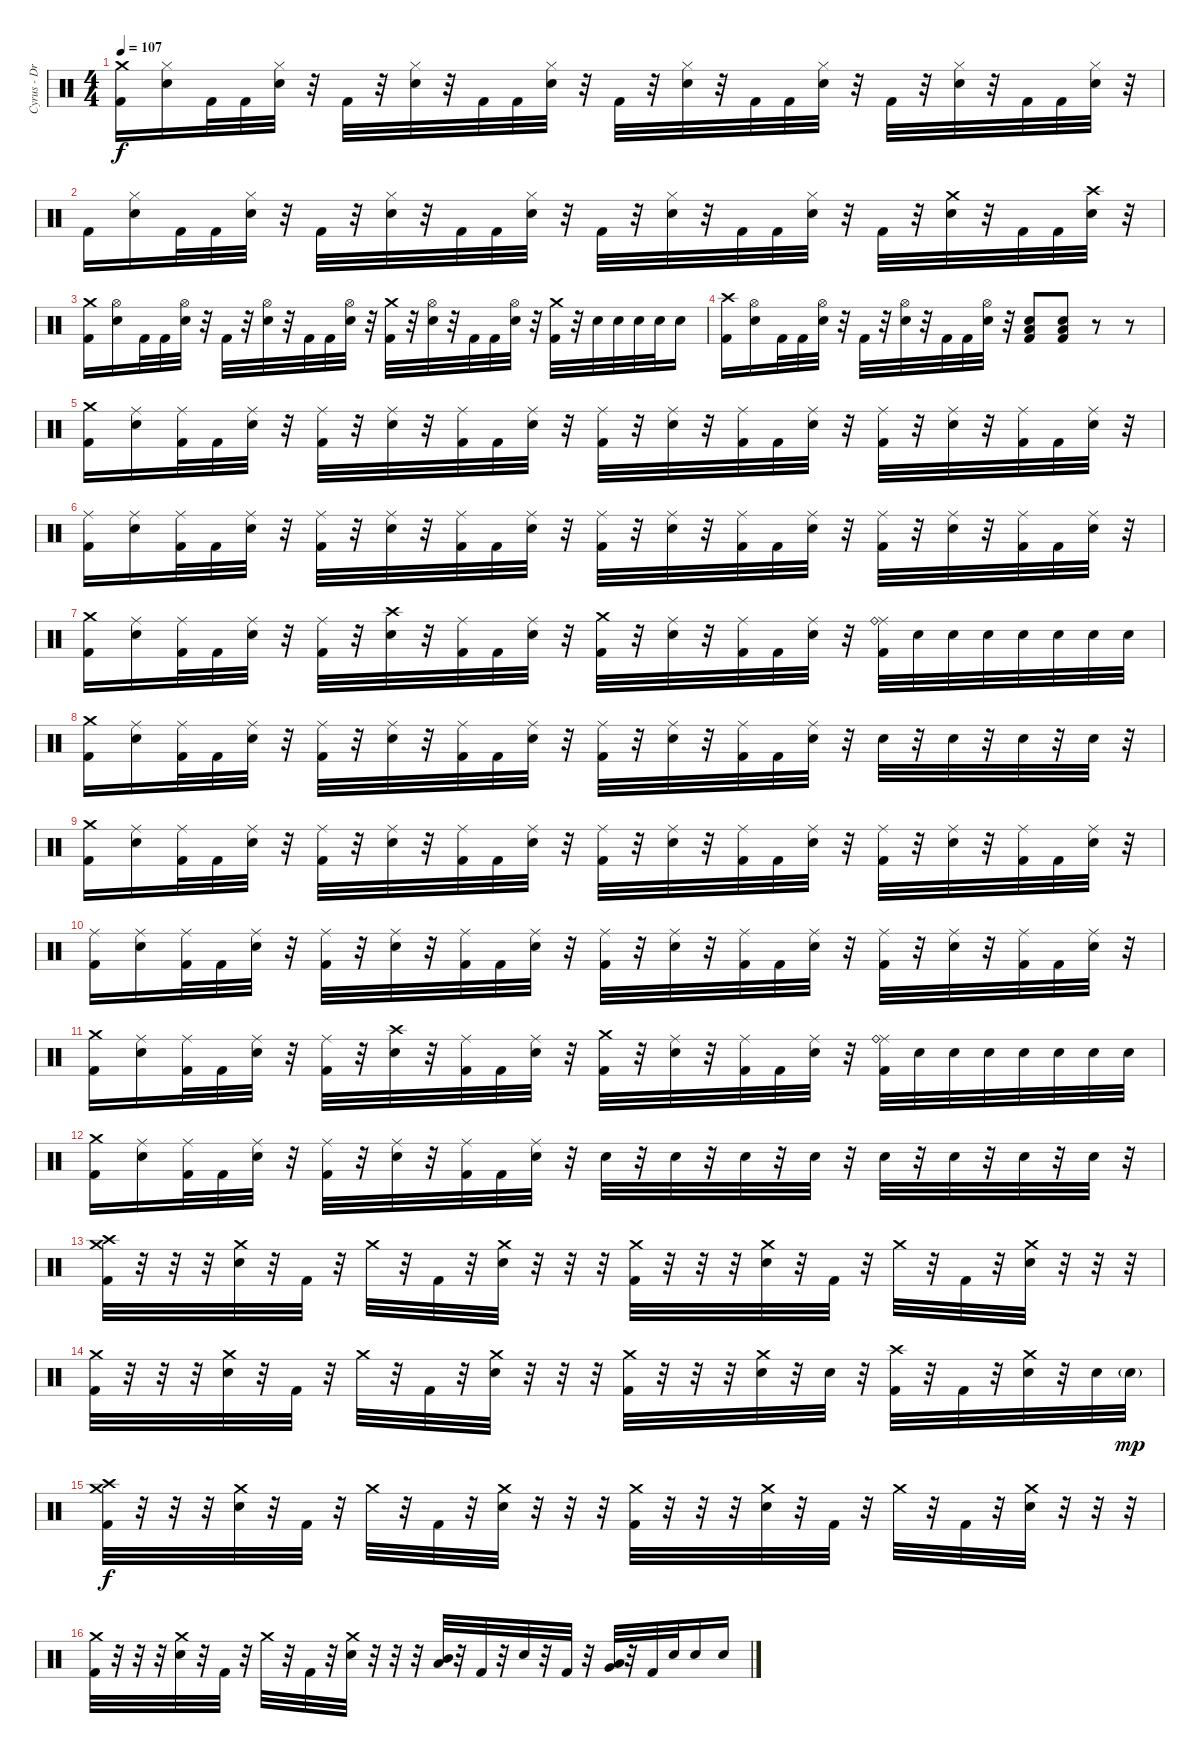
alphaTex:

\track ("Cyrus - Drums" "Cyrus - Dr") {instrument percussion}
\staff {score}
\articulation defaults
\ts (4 4)
\tempo 107
\clef neutral
\ks c
("Crash medium (hit)" "Kick (hit) 2").16{dy f} ("Hi-Hat (closed)" "Electric Snare (hit)").16 "Kick (hit) 2".32 "Kick (hit) 2".32 ("Hi-Hat (closed)" "Electric Snare (hit)").32 r.32 "Kick (hit) 2".32 r.32 ("Hi-Hat (closed)" "Electric Snare (hit)").32 r.32 "Kick (hit) 2".32 "Kick (hit) 2".32 ("Hi-Hat (closed)" "Electric Snare (hit)").32 r.32 "Kick (hit) 2".32 r.32 ("Hi-Hat (closed)" "Electric Snare (hit)").32 r.32 "Kick (hit) 2".32 "Kick (hit) 2".32 ("Hi-Hat (closed)" "Electric Snare (hit)").32 r.32 "Kick (hit) 2".32 r.32 ("Hi-Hat (closed)" "Electric Snare (hit)").32 r.32 "Kick (hit) 2".32 "Kick (hit) 2".32 ("Hi-Hat (closed)" "Electric Snare (hit)").32 r.32 |
"Kick (hit) 2".16 ("Hi-Hat (closed)" "Electric Snare (hit)").16 "Kick (hit) 2".32 "Kick (hit) 2".32 ("Hi-Hat (closed)" "Electric Snare (hit)").32 r.32 "Kick (hit) 2".32 r.32 ("Hi-Hat (closed)" "Electric Snare (hit)").32 r.32 "Kick (hit) 2".32 "Kick (hit) 2".32 ("Hi-Hat (closed)" "Electric Snare (hit)").32 r.32 "Kick (hit) 2".32 r.32 ("Hi-Hat (closed)" "Electric Snare (hit)").32 r.32 "Kick (hit) 2".32 "Kick (hit) 2".32 ("Hi-Hat (closed)" "Electric Snare (hit)").32 r.32 "Kick (hit) 2".32 r.32 ("Crash medium (hit)" "Electric Snare (hit)").32 r.32 "Kick (hit) 2".32 "Kick (hit) 2".32 ("Crash high (hit)" "Electric Snare (hit)").32 r.32 |
("Crash medium (hit)" "Kick (hit) 2").16 ("Hi-Hat (open)" "Electric Snare (hit)").16 "Kick (hit) 2".32 "Kick (hit) 2".32 ("Hi-Hat (open)" "Electric Snare (hit)").32 r.32 "Kick (hit) 2".32 r.32 ("Hi-Hat (open)" "Electric Snare (hit)").32 r.32 "Kick (hit) 2".32 "Kick (hit) 2".32 ("Hi-Hat (open)" "Electric Snare (hit)").32 r.32 ("Crash medium (hit)" "Kick (hit) 2").32 r.32 ("Hi-Hat (open)" "Electric Snare (hit)").32 r.32 "Kick (hit) 2".32 "Kick (hit) 2".32 ("Hi-Hat (open)" "Electric Snare (hit)").32 r.32 ("Crash medium (hit)" "Kick (hit) 2").32 r.32 "Electric Snare (hit)".32 "Electric Snare (hit)".32 "Electric Snare (hit)".32 "Electric Snare (hit)".32 "Electric Snare (hit)".16 |
("Crash high (hit)" "Kick (hit) 2").16 ("Hi-Hat (open)" "Electric Snare (hit)").16 "Kick (hit) 2".32 "Kick (hit) 2".32 ("Hi-Hat (open)" "Electric Snare (hit)").32 r.32 "Kick (hit) 2".32 r.32 ("Hi-Hat (open)" "Electric Snare (hit)").32 r.32 "Kick (hit) 2".32 "Kick (hit) 2".32 ("Hi-Hat (open)" "Electric Snare (hit)").32 r.32 ("Electric Snare (hit)" "Low Tom (hit)" "Kick (hit) 2").8 ("Electric Snare (hit)" "Low Tom (hit)" "Kick (hit) 2").8 r.8 r.8 |
("Crash medium (hit)" "Kick (hit) 2").16 ("Ride (middle)" "Electric Snare (hit)").16 ("Ride (middle)" "Kick (hit) 2").32 "Kick (hit) 2".32 ("Ride (middle)" "Electric Snare (hit)").32 r.32 ("Ride (middle)" "Kick (hit) 2").32 r.32 ("Ride (middle)" "Electric Snare (hit)").32 r.32 ("Ride (middle)" "Kick (hit) 2").32 "Kick (hit) 2".32 ("Ride (middle)" "Electric Snare (hit)").32 r.32 ("Ride (middle)" "Kick (hit) 2").32 r.32 ("Ride (middle)" "Electric Snare (hit)").32 r.32 ("Ride (middle)" "Kick (hit) 2").32 "Kick (hit) 2".32 ("Ride (middle)" "Electric Snare (hit)").32 r.32 ("Ride (middle)" "Kick (hit) 2").32 r.32 ("Ride (middle)" "Electric Snare (hit)").32 r.32 ("Ride (middle)" "Kick (hit) 2").32 "Kick (hit) 2".32 ("Ride (middle)" "Electric Snare (hit)").32 r.32 |
("Ride (middle)" "Kick (hit) 2").16 ("Ride (middle)" "Electric Snare (hit)").16 ("Ride (middle)" "Kick (hit) 2").32 "Kick (hit) 2".32 ("Ride (middle)" "Electric Snare (hit)").32 r.32 ("Ride (middle)" "Kick (hit) 2").32 r.32 ("Ride (middle)" "Electric Snare (hit)").32 r.32 ("Ride (middle)" "Kick (hit) 2").32 "Kick (hit) 2".32 ("Ride (middle)" "Electric Snare (hit)").32 r.32 ("Ride (middle)" "Kick (hit) 2").32 r.32 ("Ride (middle)" "Electric Snare (hit)").32 r.32 ("Ride (middle)" "Kick (hit) 2").32 "Kick (hit) 2".32 ("Ride (middle)" "Electric Snare (hit)").32 r.32 ("Ride (middle)" "Kick (hit) 2").32 r.32 ("Ride (middle)" "Electric Snare (hit)").32 r.32 ("Ride (middle)" "Kick (hit) 2").32 "Kick (hit) 2".32 ("Ride (middle)" "Electric Snare (hit)").32 r.32 |
("Crash medium (hit)" "Kick (hit) 2").16 ("Ride (middle)" "Electric Snare (hit)").16 ("Ride (middle)" "Kick (hit) 2").32 "Kick (hit) 2".32 ("Ride (middle)" "Electric Snare (hit)").32 r.32 ("Ride (middle)" "Kick (hit) 2").32 r.32 ("Crash high (hit)" "Electric Snare (hit)").32 r.32 ("Ride (middle)" "Kick (hit) 2").32 "Kick (hit) 2".32 ("Ride (middle)" "Electric Snare (hit)").32 r.32 ("Crash medium (hit)" "Kick (hit) 2").32 r.32 ("Ride (middle)" "Electric Snare (hit)").32 r.32 ("Ride (middle)" "Kick (hit) 2").32 "Kick (hit) 2".32 ("Ride (middle)" "Electric Snare (hit)").32 r.32 ("Ride (middle)" "Ride (bell)" "Kick (hit) 2").32 "Electric Snare (hit)".32 "Electric Snare (hit)".32 "Electric Snare (hit)".32 "Electric Snare (hit)".32 "Electric Snare (hit)".32 "Electric Snare (hit)".32 "Electric Snare (hit)".32 |
("Crash medium (hit)" "Kick (hit) 2").16 ("Ride (middle)" "Electric Snare (hit)").16 ("Ride (middle)" "Kick (hit) 2").32 "Kick (hit) 2".32 ("Ride (middle)" "Electric Snare (hit)").32 r.32 ("Ride (middle)" "Kick (hit) 2").32 r.32 ("Ride (middle)" "Electric Snare (hit)").32 r.32 ("Ride (middle)" "Kick (hit) 2").32 "Kick (hit) 2".32 ("Ride (middle)" "Electric Snare (hit)").32 r.32 ("Ride (middle)" "Kick (hit) 2").32 r.32 ("Ride (middle)" "Electric Snare (hit)").32 r.32 ("Ride (middle)" "Kick (hit) 2").32 "Kick (hit) 2".32 ("Ride (middle)" "Electric Snare (hit)").32 r.32 "Electric Snare (hit)".32 r.32 "Electric Snare (hit)".32 r.32 "Electric Snare (hit)".32 r.32 "Electric Snare (hit)".32 r.32 |
("Crash medium (hit)" "Kick (hit) 2").16 ("Ride (middle)" "Electric Snare (hit)").16 ("Ride (middle)" "Kick (hit) 2").32 "Kick (hit) 2".32 ("Ride (middle)" "Electric Snare (hit)").32 r.32 ("Ride (middle)" "Kick (hit) 2").32 r.32 ("Ride (middle)" "Electric Snare (hit)").32 r.32 ("Ride (middle)" "Kick (hit) 2").32 "Kick (hit) 2".32 ("Ride (middle)" "Electric Snare (hit)").32 r.32 ("Ride (middle)" "Kick (hit) 2").32 r.32 ("Ride (middle)" "Electric Snare (hit)").32 r.32 ("Ride (middle)" "Kick (hit) 2").32 "Kick (hit) 2".32 ("Ride (middle)" "Electric Snare (hit)").32 r.32 ("Ride (middle)" "Kick (hit) 2").32 r.32 ("Ride (middle)" "Electric Snare (hit)").32 r.32 ("Ride (middle)" "Kick (hit) 2").32 "Kick (hit) 2".32 ("Ride (middle)" "Electric Snare (hit)").32 r.32 |
("Ride (middle)" "Kick (hit) 2").16 ("Ride (middle)" "Electric Snare (hit)").16 ("Ride (middle)" "Kick (hit) 2").32 "Kick (hit) 2".32 ("Ride (middle)" "Electric Snare (hit)").32 r.32 ("Ride (middle)" "Kick (hit) 2").32 r.32 ("Ride (middle)" "Electric Snare (hit)").32 r.32 ("Ride (middle)" "Kick (hit) 2").32 "Kick (hit) 2".32 ("Ride (middle)" "Electric Snare (hit)").32 r.32 ("Ride (middle)" "Kick (hit) 2").32 r.32 ("Ride (middle)" "Electric Snare (hit)").32 r.32 ("Ride (middle)" "Kick (hit) 2").32 "Kick (hit) 2".32 ("Ride (middle)" "Electric Snare (hit)").32 r.32 ("Ride (middle)" "Kick (hit) 2").32 r.32 ("Ride (middle)" "Electric Snare (hit)").32 r.32 ("Ride (middle)" "Kick (hit) 2").32 "Kick (hit) 2".32 ("Ride (middle)" "Electric Snare (hit)").32 r.32 |
("Crash medium (hit)" "Kick (hit) 2").16 ("Ride (middle)" "Electric Snare (hit)").16 ("Ride (middle)" "Kick (hit) 2").32 "Kick (hit) 2".32 ("Ride (middle)" "Electric Snare (hit)").32 r.32 ("Ride (middle)" "Kick (hit) 2").32 r.32 ("Crash high (hit)" "Electric Snare (hit)").32 r.32 ("Ride (middle)" "Kick (hit) 2").32 "Kick (hit) 2".32 ("Ride (middle)" "Electric Snare (hit)").32 r.32 ("Crash medium (hit)" "Kick (hit) 2").32 r.32 ("Ride (middle)" "Electric Snare (hit)").32 r.32 ("Ride (middle)" "Kick (hit) 2").32 "Kick (hit) 2".32 ("Ride (middle)" "Electric Snare (hit)").32 r.32 ("Ride (middle)" "Ride (bell)" "Kick (hit) 2").32 "Electric Snare (hit)".32 "Electric Snare (hit)".32 "Electric Snare (hit)".32 "Electric Snare (hit)".32 "Electric Snare (hit)".32 "Electric Snare (hit)".32 "Electric Snare (hit)".32 |
("Crash medium (hit)" "Kick (hit) 2").16 ("Ride (middle)" "Electric Snare (hit)").16 ("Ride (middle)" "Kick (hit) 2").32 "Kick (hit) 2".32 ("Ride (middle)" "Electric Snare (hit)").32 r.32 ("Ride (middle)" "Kick (hit) 2").32 r.32 ("Ride (middle)" "Electric Snare (hit)").32 r.32 ("Ride (middle)" "Kick (hit) 2").32 "Kick (hit) 2".32 ("Ride (middle)" "Electric Snare (hit)").32 r.32 "Electric Snare (hit)".32 r.32 "Electric Snare (hit)".32 r.32 "Electric Snare (hit)".32 r.32 "Electric Snare (hit)".32 r.32 "Electric Snare (hit)".32 r.32 "Electric Snare (hit)".32 r.32 "Electric Snare (hit)".32 r.32 "Electric Snare (hit)".32 r.32 |
("Crash medium (hit)" "Crash high (hit)" "Kick (hit) 2").32 r.32 r.32 r.32 ("Crash medium (hit)" "Electric Snare (hit)").32 r.32 "Kick (hit) 2".32 r.32 "Crash medium (hit)".32 r.32 "Kick (hit) 2".32 r.32 ("Crash medium (hit)" "Electric Snare (hit)").32 r.32 r.32 r.32 ("Crash medium (hit)" "Kick (hit) 2").32 r.32 r.32 r.32 ("Crash medium (hit)" "Electric Snare (hit)").32 r.32 "Kick (hit) 2".32 r.32 "Crash medium (hit)".32 r.32 "Kick (hit) 2".32 r.32 ("Crash medium (hit)" "Electric Snare (hit)").32 r.32 r.32 r.32 |
("Crash medium (hit)" "Kick (hit) 2").32 r.32 r.32 r.32 ("Crash medium (hit)" "Electric Snare (hit)").32 r.32 "Kick (hit) 2".32 r.32 "Crash medium (hit)".32 r.32 "Kick (hit) 2".32 r.32 ("Crash medium (hit)" "Electric Snare (hit)").32 r.32 r.32 r.32 ("Crash medium (hit)" "Kick (hit) 2").32 r.32 r.32 r.32 ("Crash medium (hit)" "Electric Snare (hit)").32 r.32 "Electric Snare (hit)".32 r.32 ("Crash high (hit)" "Kick (hit) 2").32 r.32 "Kick (hit) 2".32 r.32 ("Crash medium (hit)" "Electric Snare (hit)").32 r.32 "Electric Snare (hit)".32 "Electric Snare (hit)"{g}.32{dy mp} |
("Crash medium (hit)" "Crash high (hit)" "Kick (hit) 2").32{dy f} r.32 r.32 r.32 ("Crash medium (hit)" "Electric Snare (hit)").32 r.32 "Kick (hit) 2".32 r.32 "Crash medium (hit)".32 r.32 "Kick (hit) 2".32 r.32 ("Crash medium (hit)" "Electric Snare (hit)").32 r.32 r.32 r.32 ("Crash medium (hit)" "Kick (hit) 2").32 r.32 r.32 r.32 ("Crash medium (hit)" "Electric Snare (hit)").32 r.32 "Kick (hit) 2".32 r.32 "Crash medium (hit)".32 r.32 "Kick (hit) 2".32 r.32 ("Crash medium (hit)" "Electric Snare (hit)").32 r.32 r.32 r.32 |
("Crash medium (hit)" "Kick (hit) 2").32 r.32 r.32 r.32 ("Crash medium (hit)" "Electric Snare (hit)").32 r.32 "Kick (hit) 2".32 r.32 "Crash medium (hit)".32 r.32 "Kick (hit) 2".32 r.32 ("Crash medium (hit)" "Electric Snare (hit)").32 r.32 r.32 r.32 ("Mid Tom (hit)" "Low Tom (hit)").32 r.32 "Kick (hit) 2".32 r.32 "Electric Snare (hit)".32 r.32 "Kick (hit) 2".32 r.32 ("Low Tom (hit)" "Very Low Tom (hit)").32 r.32 "Kick (hit) 2".32 "Electric Snare (hit)".32 "Electric Snare (hit)".16 "Electric Snare (hit)".16
